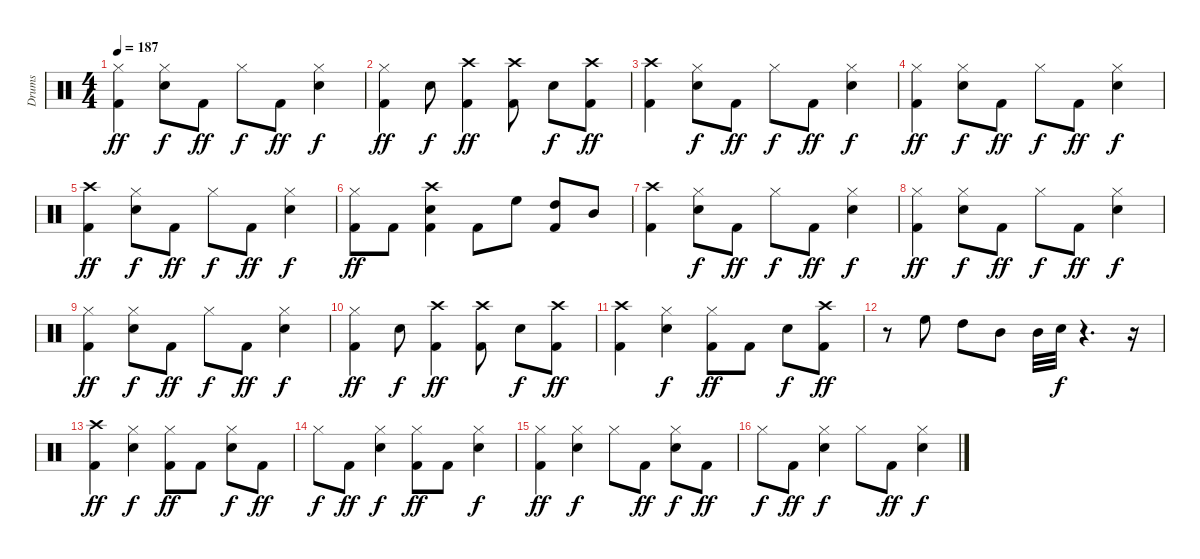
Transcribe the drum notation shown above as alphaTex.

\track ("Drums" "Drums") {instrument percussion}
\staff {score}
\articulation defaults
\ts (4 4)
\tempo 187
\clef neutral
\ks c
("Hi-Hat (closed)" "Kick (hit) 2").4{dy ff} ("Hi-Hat (closed)" "Electric Snare (hit)").8{dy f} "Kick (hit) 2".8{dy ff} "Hi-Hat (closed)".8{dy f} "Kick (hit) 2".8{dy ff} ("Hi-Hat (closed)" "Electric Snare (hit)").4{dy f} |
("Hi-Hat (closed)" "Kick (hit) 2").4{dy ff} "Electric Snare (hit)".8{dy f} ("Crash high (hit)" "Kick (hit) 2").4{dy ff} ("Crash high (hit)" "Kick (hit) 2").8 "Electric Snare (hit)".8{dy f} ("Crash high (hit)" "Kick (hit) 2").8{dy ff} |
("Crash high (hit)" "Kick (hit) 2").4 ("Hi-Hat (closed)" "Electric Snare (hit)").8{dy f} "Kick (hit) 2".8{dy ff} "Hi-Hat (closed)".8{dy f} "Kick (hit) 2".8{dy ff} ("Hi-Hat (closed)" "Electric Snare (hit)").4{dy f} |
("Hi-Hat (closed)" "Kick (hit) 2").4{dy ff} ("Hi-Hat (closed)" "Electric Snare (hit)").8{dy f} "Kick (hit) 2".8{dy ff} "Hi-Hat (closed)".8{dy f} "Kick (hit) 2".8{dy ff} ("Hi-Hat (closed)" "Electric Snare (hit)").4{dy f} |
("Crash high (hit)" "Kick (hit) 2").4{dy ff} ("Hi-Hat (closed)" "Electric Snare (hit)").8{dy f} "Kick (hit) 2".8{dy ff} "Hi-Hat (closed)".8{dy f} "Kick (hit) 2".8{dy ff} ("Hi-Hat (closed)" "Electric Snare (hit)").4{dy f} |
("Hi-Hat (closed)" "Kick (hit) 2").8{dy ff} "Kick (hit) 2".8 ("Crash high (hit)" "Electric Snare (hit)" "Kick (hit) 2").4 "Kick (hit) 2".8 "High Floor Tom (hit)".8 ("High Tom (hit)" "Kick (hit) 2").8 "Mid Tom (hit)".8 |
("Crash high (hit)" "Kick (hit) 2").4 ("Hi-Hat (closed)" "Electric Snare (hit)").8{dy f} "Kick (hit) 2".8{dy ff} "Hi-Hat (closed)".8{dy f} "Kick (hit) 2".8{dy ff} ("Hi-Hat (closed)" "Electric Snare (hit)").4{dy f} |
("Hi-Hat (closed)" "Kick (hit) 2").4{dy ff} ("Hi-Hat (closed)" "Electric Snare (hit)").8{dy f} "Kick (hit) 2".8{dy ff} "Hi-Hat (closed)".8{dy f} "Kick (hit) 2".8{dy ff} ("Hi-Hat (closed)" "Electric Snare (hit)").4{dy f} |
("Hi-Hat (closed)" "Kick (hit) 2").4{dy ff} ("Hi-Hat (closed)" "Electric Snare (hit)").8{dy f} "Kick (hit) 2".8{dy ff} "Hi-Hat (closed)".8{dy f} "Kick (hit) 2".8{dy ff} ("Hi-Hat (closed)" "Electric Snare (hit)").4{dy f} |
("Hi-Hat (closed)" "Kick (hit) 2").4{dy ff} "Electric Snare (hit)".8{dy f} ("Crash high (hit)" "Kick (hit) 2").4{dy ff} ("Crash high (hit)" "Kick (hit) 2").8 "Electric Snare (hit)".8{dy f} ("Crash high (hit)" "Kick (hit) 2").8{dy ff} |
("Crash high (hit)" "Kick (hit) 2").4 ("Hi-Hat (closed)" "Electric Snare (hit)").4{dy f} ("Hi-Hat (closed)" "Kick (hit) 2").8{dy ff} "Kick (hit) 2".8 "Electric Snare (hit)".8{dy f} ("Crash high (hit)" "Kick (hit) 2").8{dy ff} |
r.8 "High Floor Tom (hit)".8 "High Tom (hit)".8 "Mid Tom (hit)".8 "Mid Tom (hit)".32 "Electric Snare (hit)".32{dy f} r.4{d} r.16 |
("Crash high (hit)" "Kick (hit) 2").4{dy ff} ("Hi-Hat (closed)" "Electric Snare (hit)").4{dy f} ("Hi-Hat (closed)" "Kick (hit) 2").8{dy ff} "Kick (hit) 2".8 ("Hi-Hat (closed)" "Electric Snare (hit)").8{dy f} "Kick (hit) 2".8{dy ff} |
"Hi-Hat (closed)".8{dy f} "Kick (hit) 2".8{dy ff} ("Hi-Hat (closed)" "Electric Snare (hit)").4{dy f} ("Hi-Hat (closed)" "Kick (hit) 2").8{dy ff} "Kick (hit) 2".8 ("Hi-Hat (closed)" "Electric Snare (hit)").4{dy f} |
("Hi-Hat (closed)" "Kick (hit) 2").4{dy ff} ("Hi-Hat (closed)" "Electric Snare (hit)").4{dy f} "Hi-Hat (closed)".8 "Kick (hit) 2".8{dy ff} ("Hi-Hat (closed)" "Electric Snare (hit)").8{dy f} "Kick (hit) 2".8{dy ff} |
"Hi-Hat (closed)".8{dy f} "Kick (hit) 2".8{dy ff} ("Hi-Hat (closed)" "Electric Snare (hit)").4{dy f} "Hi-Hat (closed)".8 "Kick (hit) 2".8{dy ff} ("Hi-Hat (closed)" "Electric Snare (hit)").4{dy f}
